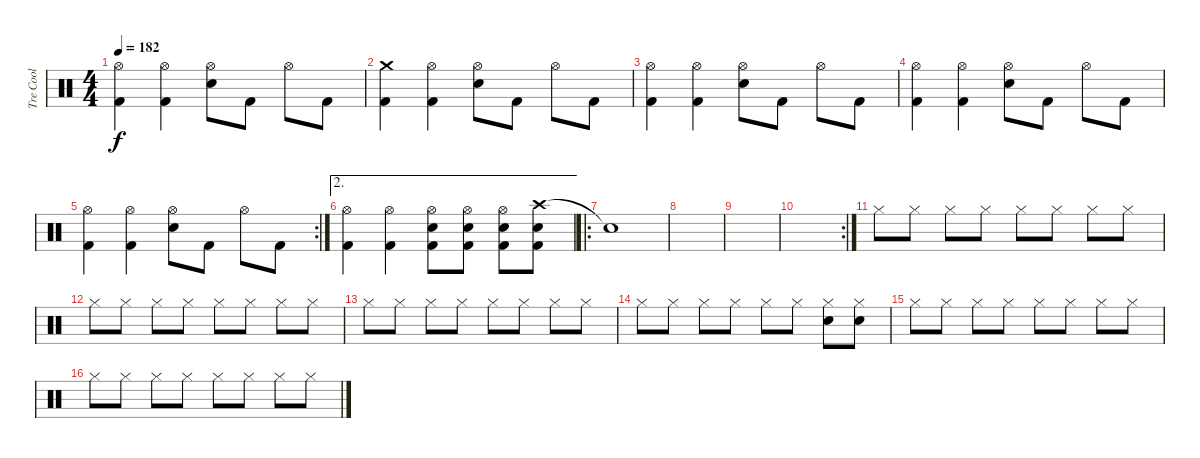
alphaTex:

\track ("Tre Cool" "Tre Cool") {instrument percussion}
\staff {score}
\articulation defaults
\ts (4 4)
\tempo 182
\clef neutral
\ks c
("Hi-Hat (open)" "Kick (hit) 2").4{dy f} ("Hi-Hat (open)" "Kick (hit) 2").4 ("Electric Snare (hit)" "Hi-Hat (open)").8 "Kick (hit) 2".8 "Hi-Hat (open)".8 "Kick (hit) 2".8 |
("Crash medium (hit)" "Kick (hit) 2").4 ("Hi-Hat (open)" "Kick (hit) 2").4 ("Electric Snare (hit)" "Hi-Hat (open)").8 "Kick (hit) 2".8 "Hi-Hat (open)".8 "Kick (hit) 2".8 |
("Hi-Hat (open)" "Kick (hit) 2").4 ("Hi-Hat (open)" "Kick (hit) 2").4 ("Electric Snare (hit)" "Hi-Hat (open)").8 "Kick (hit) 2".8 "Hi-Hat (open)".8 "Kick (hit) 2".8 |
("Hi-Hat (open)" "Kick (hit) 2").4 ("Hi-Hat (open)" "Kick (hit) 2").4 ("Electric Snare (hit)" "Hi-Hat (open)").8 "Kick (hit) 2".8 "Hi-Hat (open)".8 "Kick (hit) 2".8 |
\rc 2
("Hi-Hat (open)" "Kick (hit) 2").4 ("Hi-Hat (open)" "Kick (hit) 2").4 ("Electric Snare (hit)" "Hi-Hat (open)").8 "Kick (hit) 2".8 "Hi-Hat (open)".8 "Kick (hit) 2".8 |
\ae 2
("Hi-Hat (open)" "Kick (hit) 2").4 ("Hi-Hat (open)" "Kick (hit) 2").4 ("Hi-Hat (open)" "Electric Snare (hit)" "Kick (hit) 2").8 ("Hi-Hat (open)" "Electric Snare (hit)" "Kick (hit) 2").8 ("Hi-Hat (open)" "Electric Snare (hit)" "Kick (hit) 2").8 ("Crash high (hit)" "Electric Snare (hit)" "Kick (hit) 2").8 |
\ro "Snare (hit)"{t}.1
|
|
|
\rc 2
|
"Hi-Hat (closed)".8 "Hi-Hat (closed)".8 "Hi-Hat (closed)".8 "Hi-Hat (closed)".8 "Hi-Hat (closed)".8 "Hi-Hat (closed)".8 "Hi-Hat (closed)".8 "Hi-Hat (closed)".8 |
"Hi-Hat (closed)".8 "Hi-Hat (closed)".8 "Hi-Hat (closed)".8 "Hi-Hat (closed)".8 "Hi-Hat (closed)".8 "Hi-Hat (closed)".8 "Hi-Hat (closed)".8 "Hi-Hat (closed)".8 |
"Hi-Hat (closed)".8 "Hi-Hat (closed)".8 "Hi-Hat (closed)".8 "Hi-Hat (closed)".8 "Hi-Hat (closed)".8 "Hi-Hat (closed)".8 "Hi-Hat (closed)".8 "Hi-Hat (closed)".8 |
"Hi-Hat (closed)".8 "Hi-Hat (closed)".8 "Hi-Hat (closed)".8 "Hi-Hat (closed)".8 "Hi-Hat (closed)".8 "Hi-Hat (closed)".8 ("Snare (hit) 2" "Hi-Hat (closed)").8 ("Snare (hit) 2" "Hi-Hat (closed)").8 |
"Hi-Hat (closed)".8 "Hi-Hat (closed)".8 "Hi-Hat (closed)".8 "Hi-Hat (closed)".8 "Hi-Hat (closed)".8 "Hi-Hat (closed)".8 "Hi-Hat (closed)".8 "Hi-Hat (closed)".8 |
"Hi-Hat (closed)".8 "Hi-Hat (closed)".8 "Hi-Hat (closed)".8 "Hi-Hat (closed)".8 "Hi-Hat (closed)".8 "Hi-Hat (closed)".8 "Hi-Hat (closed)".8 "Hi-Hat (closed)".8
